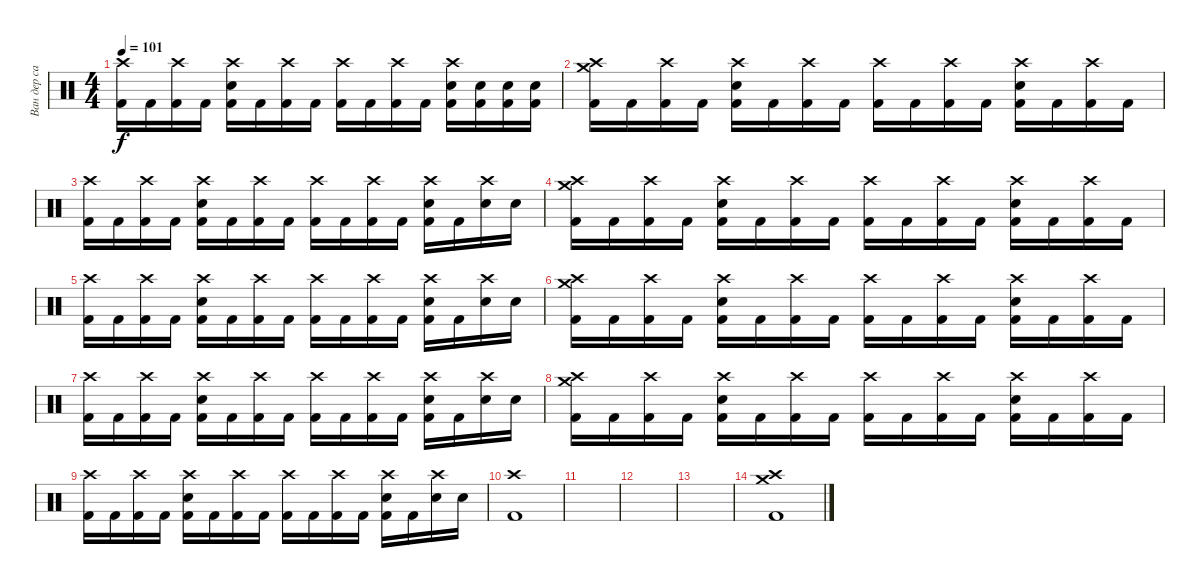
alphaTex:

\track ("Ван дер сар" "Ван дер са") {instrument percussion}
\staff {score}
\articulation defaults
\ts (4 4)
\tempo 101
\clef neutral
\ks c
("Crash high (hit)" "Kick (hit) 2").16{dy f} "Kick (hit) 2".16 ("Crash high (hit)" "Kick (hit) 2").16 "Kick (hit) 2".16 ("Crash high (hit)" "Snare (hit) 2" "Kick (hit) 2").16 "Kick (hit) 2".16 ("Crash high (hit)" "Kick (hit) 2").16 "Kick (hit) 2".16 ("Crash high (hit)" "Kick (hit) 2").16 "Kick (hit) 2".16 ("Crash high (hit)" "Kick (hit) 2").16 "Kick (hit) 2".16 ("Crash high (hit)" "Snare (hit) 2" "Kick (hit) 2").16 ("Snare (hit) 2" "Kick (hit) 2").16 ("Snare (hit) 2" "Kick (hit) 2").16 ("Snare (hit) 2" "Kick (hit) 2").16 |
("Crash high (hit)" "Crash medium (hit)" "Kick (hit) 2").16 "Kick (hit) 2".16 ("Crash high (hit)" "Kick (hit) 2").16 "Kick (hit) 2".16 ("Crash high (hit)" "Snare (hit) 2" "Kick (hit) 2").16 "Kick (hit) 2".16 ("Crash high (hit)" "Kick (hit) 2").16 "Kick (hit) 2".16 ("Crash high (hit)" "Kick (hit) 2").16 "Kick (hit) 2".16 ("Crash high (hit)" "Kick (hit) 2").16 "Kick (hit) 2".16 ("Crash high (hit)" "Snare (hit) 2" "Kick (hit) 2").16 "Kick (hit) 2".16 ("Crash high (hit)" "Kick (hit) 2").16 "Kick (hit) 2".16 |
("Crash high (hit)" "Kick (hit) 2").16 "Kick (hit) 2".16 ("Crash high (hit)" "Kick (hit) 2").16 "Kick (hit) 2".16 ("Crash high (hit)" "Snare (hit) 2" "Kick (hit) 2").16 "Kick (hit) 2".16 ("Crash high (hit)" "Kick (hit) 2").16 "Kick (hit) 2".16 ("Crash high (hit)" "Kick (hit) 2").16 "Kick (hit) 2".16 ("Crash high (hit)" "Kick (hit) 2").16 "Kick (hit) 2".16 ("Crash high (hit)" "Snare (hit) 2" "Kick (hit) 2").16 "Kick (hit) 2".16 ("Crash high (hit)" "Snare (hit) 2").16 "Snare (hit) 2".16 |
("Crash high (hit)" "Crash medium (hit)" "Kick (hit) 2").16 "Kick (hit) 2".16 ("Crash high (hit)" "Kick (hit) 2").16 "Kick (hit) 2".16 ("Crash high (hit)" "Snare (hit) 2" "Kick (hit) 2").16 "Kick (hit) 2".16 ("Crash high (hit)" "Kick (hit) 2").16 "Kick (hit) 2".16 ("Crash high (hit)" "Kick (hit) 2").16 "Kick (hit) 2".16 ("Crash high (hit)" "Kick (hit) 2").16 "Kick (hit) 2".16 ("Crash high (hit)" "Snare (hit) 2" "Kick (hit) 2").16 "Kick (hit) 2".16 ("Crash high (hit)" "Kick (hit) 2").16 "Kick (hit) 2".16 |
("Crash high (hit)" "Kick (hit) 2").16 "Kick (hit) 2".16 ("Crash high (hit)" "Kick (hit) 2").16 "Kick (hit) 2".16 ("Crash high (hit)" "Snare (hit) 2" "Kick (hit) 2").16 "Kick (hit) 2".16 ("Crash high (hit)" "Kick (hit) 2").16 "Kick (hit) 2".16 ("Crash high (hit)" "Kick (hit) 2").16 "Kick (hit) 2".16 ("Crash high (hit)" "Kick (hit) 2").16 "Kick (hit) 2".16 ("Crash high (hit)" "Snare (hit) 2" "Kick (hit) 2").16 "Kick (hit) 2".16 ("Crash high (hit)" "Snare (hit) 2").16 "Snare (hit) 2".16 |
("Crash high (hit)" "Crash medium (hit)" "Kick (hit) 2").16 "Kick (hit) 2".16 ("Crash high (hit)" "Kick (hit) 2").16 "Kick (hit) 2".16 ("Crash high (hit)" "Snare (hit) 2" "Kick (hit) 2").16 "Kick (hit) 2".16 ("Crash high (hit)" "Kick (hit) 2").16 "Kick (hit) 2".16 ("Crash high (hit)" "Kick (hit) 2").16 "Kick (hit) 2".16 ("Crash high (hit)" "Kick (hit) 2").16 "Kick (hit) 2".16 ("Crash high (hit)" "Snare (hit) 2" "Kick (hit) 2").16 "Kick (hit) 2".16 ("Crash high (hit)" "Kick (hit) 2").16 "Kick (hit) 2".16 |
("Crash high (hit)" "Kick (hit) 2").16 "Kick (hit) 2".16 ("Crash high (hit)" "Kick (hit) 2").16 "Kick (hit) 2".16 ("Crash high (hit)" "Snare (hit) 2" "Kick (hit) 2").16 "Kick (hit) 2".16 ("Crash high (hit)" "Kick (hit) 2").16 "Kick (hit) 2".16 ("Crash high (hit)" "Kick (hit) 2").16 "Kick (hit) 2".16 ("Crash high (hit)" "Kick (hit) 2").16 "Kick (hit) 2".16 ("Crash high (hit)" "Snare (hit) 2" "Kick (hit) 2").16 "Kick (hit) 2".16 ("Crash high (hit)" "Snare (hit) 2").16 "Snare (hit) 2".16 |
("Crash high (hit)" "Crash medium (hit)" "Kick (hit) 2").16 "Kick (hit) 2".16 ("Crash high (hit)" "Kick (hit) 2").16 "Kick (hit) 2".16 ("Crash high (hit)" "Snare (hit) 2" "Kick (hit) 2").16 "Kick (hit) 2".16 ("Crash high (hit)" "Kick (hit) 2").16 "Kick (hit) 2".16 ("Crash high (hit)" "Kick (hit) 2").16 "Kick (hit) 2".16 ("Crash high (hit)" "Kick (hit) 2").16 "Kick (hit) 2".16 ("Crash high (hit)" "Snare (hit) 2" "Kick (hit) 2").16 "Kick (hit) 2".16 ("Crash high (hit)" "Kick (hit) 2").16 "Kick (hit) 2".16 |
("Crash high (hit)" "Kick (hit) 2").16 "Kick (hit) 2".16 ("Crash high (hit)" "Kick (hit) 2").16 "Kick (hit) 2".16 ("Crash high (hit)" "Snare (hit) 2" "Kick (hit) 2").16 "Kick (hit) 2".16 ("Crash high (hit)" "Kick (hit) 2").16 "Kick (hit) 2".16 ("Crash high (hit)" "Kick (hit) 2").16 "Kick (hit) 2".16 ("Crash high (hit)" "Kick (hit) 2").16 "Kick (hit) 2".16 ("Crash high (hit)" "Snare (hit) 2" "Kick (hit) 2").16 "Kick (hit) 2".16 ("Crash high (hit)" "Snare (hit) 2").16 "Snare (hit) 2".16 |
("Crash high (hit)" "Kick (hit) 2").1 |
|
|
|
("Crash medium (hit)" "Crash high (hit)" "Kick (hit) 2").1
